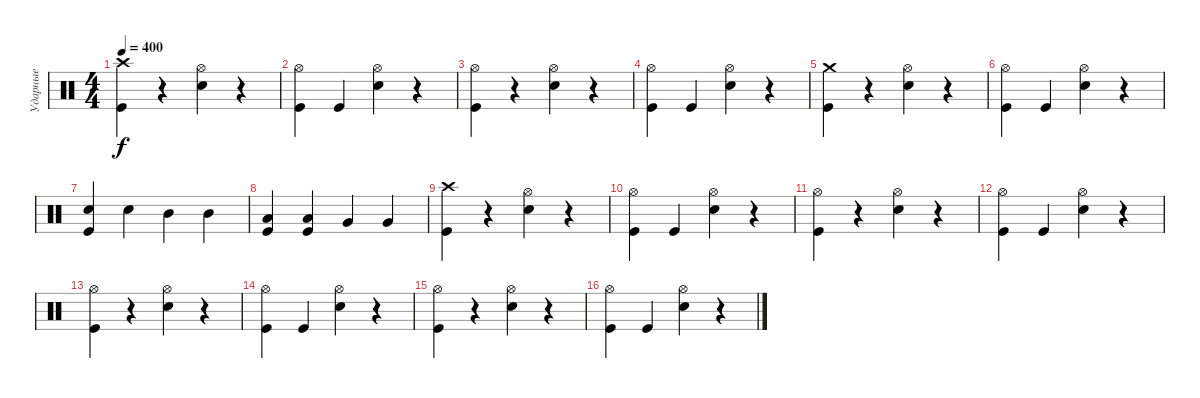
\track ("Ударные" "Ударные") {instrument percussion}
\staff {score}
\articulation defaults
\ts (4 4)
\tempo 400
\clef neutral
\ks c
("Kick (hit)" "Crash high (hit)").4{dy f} r.4 ("Snare (hit) 2" "Hi-Hat (open)").4 r.4 |
("Kick (hit)" "Hi-Hat (open)").4 "Kick (hit)".4 ("Snare (hit) 2" "Hi-Hat (open)").4 r.4 |
("Kick (hit)" "Hi-Hat (open)").4 r.4 ("Snare (hit) 2" "Hi-Hat (open)").4 r.4 |
("Kick (hit)" "Hi-Hat (open)").4 "Kick (hit)".4 ("Snare (hit) 2" "Hi-Hat (open)").4 r.4 |
("Kick (hit)" "Crash medium (hit)").4 r.4 ("Snare (hit) 2" "Hi-Hat (open)").4 r.4 |
("Kick (hit)" "Hi-Hat (open)").4 "Kick (hit)".4 ("Snare (hit) 2" "Hi-Hat (open)").4 r.4 |
("Kick (hit)" "Snare (hit) 2").4 "Snare (hit) 2".4 "Mid Tom (hit)".4 "Mid Tom (hit)".4 |
("Kick (hit)" "Low Tom (hit)").4 ("Kick (hit)" "Low Tom (hit)").4 "Very Low Tom (hit)".4 "Very Low Tom (hit)".4 |
("Kick (hit)" "Crash high (hit)").4 r.4 ("Snare (hit) 2" "Hi-Hat (open)").4 r.4 |
("Kick (hit)" "Hi-Hat (open)").4 "Kick (hit)".4 ("Snare (hit) 2" "Hi-Hat (open)").4 r.4 |
("Kick (hit)" "Hi-Hat (open)").4 r.4 ("Snare (hit) 2" "Hi-Hat (open)").4 r.4 |
("Kick (hit)" "Hi-Hat (open)").4 "Kick (hit)".4 ("Snare (hit) 2" "Hi-Hat (open)").4 r.4 |
("Kick (hit)" "Hi-Hat (open)").4 r.4 ("Snare (hit) 2" "Hi-Hat (open)").4 r.4 |
("Kick (hit)" "Hi-Hat (open)").4 "Kick (hit)".4 ("Snare (hit) 2" "Hi-Hat (open)").4 r.4 |
("Kick (hit)" "Hi-Hat (open)").4 r.4 ("Snare (hit) 2" "Hi-Hat (open)").4 r.4 |
("Kick (hit)" "Hi-Hat (open)").4 "Kick (hit)".4 ("Snare (hit) 2" "Hi-Hat (open)").4 r.4
